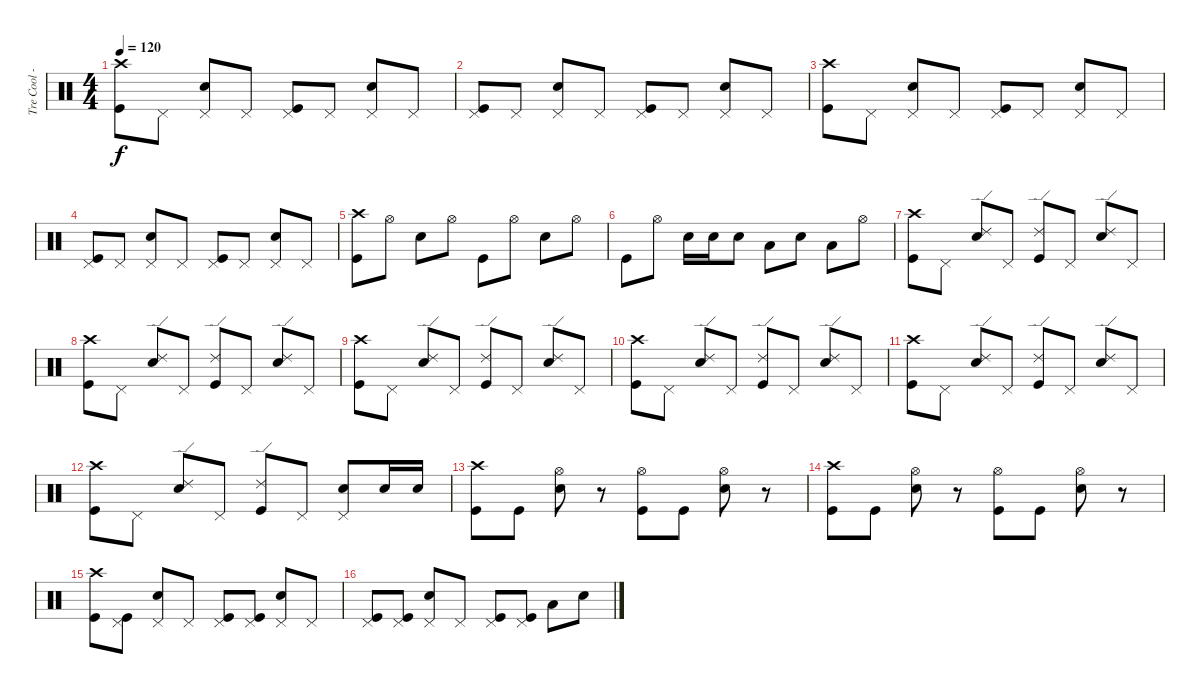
\track ("Tre Cool - Percussion" "Tre Cool -") {instrument percussion}
\staff {score}
\articulation defaults
\ts (4 4)
\tempo 120
\clef neutral
\ks c
("Crash high (hit)" "Kick (hit)").8{dy f} "Pedal Hi-Hat (hit)".8 ("Pedal Hi-Hat (hit)" "Electric Snare (hit)").8 "Pedal Hi-Hat (hit)".8 ("Pedal Hi-Hat (hit)" "Kick (hit)").8 "Pedal Hi-Hat (hit)".8 ("Pedal Hi-Hat (hit)" "Electric Snare (hit)").8 "Pedal Hi-Hat (hit)".8 |
("Pedal Hi-Hat (hit)" "Kick (hit)").8 "Pedal Hi-Hat (hit)".8 ("Pedal Hi-Hat (hit)" "Electric Snare (hit)").8 "Pedal Hi-Hat (hit)".8 ("Pedal Hi-Hat (hit)" "Kick (hit)").8 "Pedal Hi-Hat (hit)".8 ("Pedal Hi-Hat (hit)" "Electric Snare (hit)").8 "Pedal Hi-Hat (hit)".8 |
("Crash high (hit)" "Kick (hit)").8 "Pedal Hi-Hat (hit)".8 ("Pedal Hi-Hat (hit)" "Electric Snare (hit)").8 "Pedal Hi-Hat (hit)".8 ("Pedal Hi-Hat (hit)" "Kick (hit)").8 "Pedal Hi-Hat (hit)".8 ("Pedal Hi-Hat (hit)" "Electric Snare (hit)").8 "Pedal Hi-Hat (hit)".8 |
("Pedal Hi-Hat (hit)" "Kick (hit)").8 "Pedal Hi-Hat (hit)".8 ("Pedal Hi-Hat (hit)" "Electric Snare (hit)").8 "Pedal Hi-Hat (hit)".8 ("Pedal Hi-Hat (hit)" "Kick (hit)").8 "Pedal Hi-Hat (hit)".8 ("Pedal Hi-Hat (hit)" "Electric Snare (hit)").8 "Pedal Hi-Hat (hit)".8 |
("Crash high (hit)" "Kick (hit)").8 "Hi-Hat (open)".8 "Electric Snare (hit)".8 "Hi-Hat (open)".8 "Kick (hit)".8 "Hi-Hat (open)".8 "Electric Snare (hit)".8 "Hi-Hat (open)".8 |
"Kick (hit)".8 "Hi-Hat (open)".8 "Electric Snare (hit)".16 "Electric Snare (hit)".16 "Electric Snare (hit)".8 "Low Tom (hit)".8 "Electric Snare (hit)".8 "Low Tom (hit)".8 "Hi-Hat (open)".8 |
("Crash high (hit)" "Kick (hit)").8 "Pedal Hi-Hat (hit)".8 ("Ride (edge) 2" "Electric Snare (hit)").8 "Pedal Hi-Hat (hit)".8 ("Ride (edge) 2" "Kick (hit)").8 "Pedal Hi-Hat (hit)".8 ("Ride (edge) 2" "Electric Snare (hit)").8 "Pedal Hi-Hat (hit)".8 |
("Crash high (hit)" "Kick (hit)").8 "Pedal Hi-Hat (hit)".8 ("Ride (edge) 2" "Electric Snare (hit)").8 "Pedal Hi-Hat (hit)".8 ("Ride (edge) 2" "Kick (hit)").8 "Pedal Hi-Hat (hit)".8 ("Ride (edge) 2" "Electric Snare (hit)").8 "Pedal Hi-Hat (hit)".8 |
("Crash high (hit)" "Kick (hit)").8 "Pedal Hi-Hat (hit)".8 ("Ride (edge) 2" "Electric Snare (hit)").8 "Pedal Hi-Hat (hit)".8 ("Ride (edge) 2" "Kick (hit)").8 "Pedal Hi-Hat (hit)".8 ("Ride (edge) 2" "Electric Snare (hit)").8 "Pedal Hi-Hat (hit)".8 |
("Crash high (hit)" "Kick (hit)").8 "Pedal Hi-Hat (hit)".8 ("Ride (edge) 2" "Electric Snare (hit)").8 "Pedal Hi-Hat (hit)".8 ("Ride (edge) 2" "Kick (hit)").8 "Pedal Hi-Hat (hit)".8 ("Ride (edge) 2" "Electric Snare (hit)").8 "Pedal Hi-Hat (hit)".8 |
("Crash high (hit)" "Kick (hit)").8 "Pedal Hi-Hat (hit)".8 ("Ride (edge) 2" "Electric Snare (hit)").8 "Pedal Hi-Hat (hit)".8 ("Ride (edge) 2" "Kick (hit)").8 "Pedal Hi-Hat (hit)".8 ("Ride (edge) 2" "Electric Snare (hit)").8 "Pedal Hi-Hat (hit)".8 |
("Crash high (hit)" "Kick (hit)").8 "Pedal Hi-Hat (hit)".8 ("Ride (edge) 2" "Electric Snare (hit)").8 "Pedal Hi-Hat (hit)".8 ("Ride (edge) 2" "Kick (hit)").8 "Pedal Hi-Hat (hit)".8 ("Pedal Hi-Hat (hit)" "Electric Snare (hit)").8 "Electric Snare (hit)".16 "Electric Snare (hit)".16 |
("Crash high (hit)" "Kick (hit)").8 "Kick (hit)".8 ("Hi-Hat (open)" "Electric Snare (hit)").8 r.8 ("Hi-Hat (open)" "Kick (hit)").8 "Kick (hit)".8 ("Hi-Hat (open)" "Electric Snare (hit)").8 r.8 |
("Crash high (hit)" "Kick (hit)").8 "Kick (hit)".8 ("Hi-Hat (open)" "Electric Snare (hit)").8 r.8 ("Hi-Hat (open)" "Kick (hit)").8 "Kick (hit)".8 ("Hi-Hat (open)" "Electric Snare (hit)").8 r.8 |
("Crash high (hit)" "Kick (hit)").8 ("Pedal Hi-Hat (hit)" "Kick (hit)").8 ("Pedal Hi-Hat (hit)" "Electric Snare (hit)").8 "Pedal Hi-Hat (hit)".8 ("Pedal Hi-Hat (hit)" "Kick (hit)").8 ("Pedal Hi-Hat (hit)" "Kick (hit)").8 ("Pedal Hi-Hat (hit)" "Electric Snare (hit)").8 "Pedal Hi-Hat (hit)".8 |
("Pedal Hi-Hat (hit)" "Kick (hit)").8 ("Pedal Hi-Hat (hit)" "Kick (hit)").8 ("Pedal Hi-Hat (hit)" "Electric Snare (hit)").8 "Pedal Hi-Hat (hit)".8 ("Pedal Hi-Hat (hit)" "Kick (hit)").8 ("Pedal Hi-Hat (hit)" "Kick (hit)").8 "Low Tom (hit)".8 "Electric Snare (hit)".8
